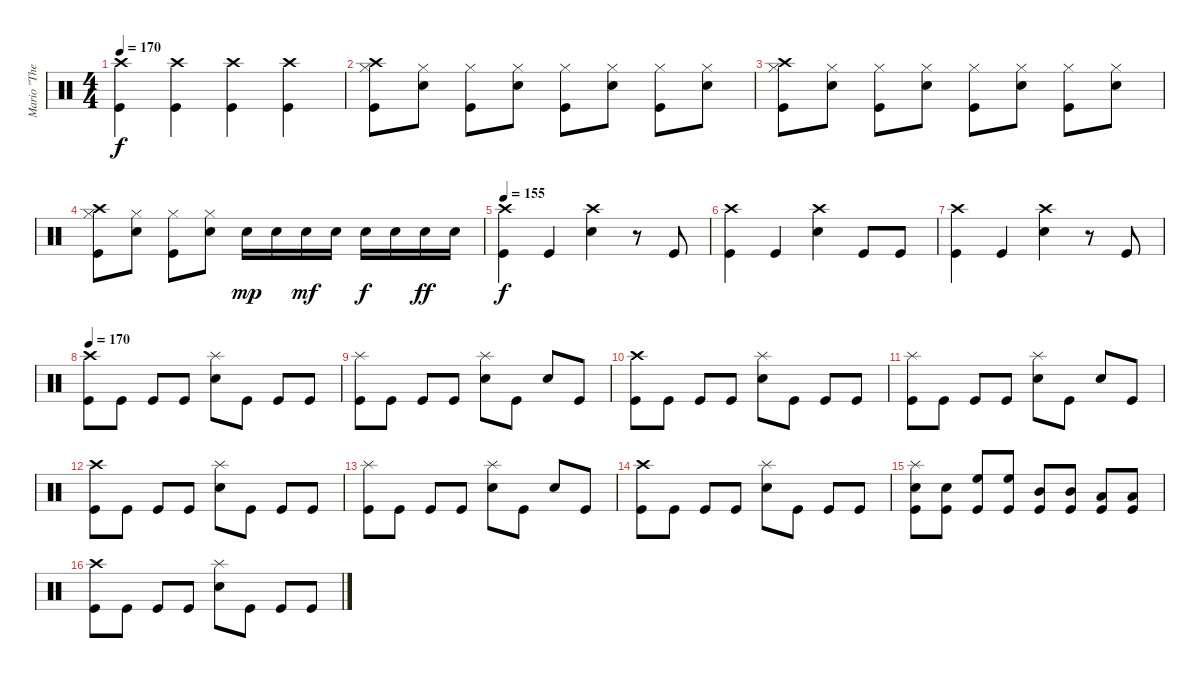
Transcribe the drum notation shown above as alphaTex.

\track ("Mario \"The Dremmel\" Hirt" "Mario \"The") {instrument percussion}
\staff {score}
\articulation defaults
\ts (4 4)
\tempo 170
\clef neutral
\ks c
("Crash high (hit)" "Kick (hit)").4{dy f} ("Crash high (hit)" "Kick (hit)").4 ("Crash high (hit)" "Kick (hit)").4 ("Crash high (hit)" "Kick (hit)").4 |
("Crash high (hit)" "Hi-Hat (closed)" "Kick (hit)").8 ("Hi-Hat (closed)" "Electric Snare (hit)").8 ("Hi-Hat (closed)" "Kick (hit)").8 ("Hi-Hat (closed)" "Electric Snare (hit)").8 ("Hi-Hat (closed)" "Kick (hit)").8 ("Hi-Hat (closed)" "Electric Snare (hit)").8 ("Hi-Hat (closed)" "Kick (hit)").8 ("Hi-Hat (closed)" "Electric Snare (hit)").8 |
("Crash high (hit)" "Hi-Hat (closed)" "Kick (hit)").8 ("Hi-Hat (closed)" "Electric Snare (hit)").8 ("Hi-Hat (closed)" "Kick (hit)").8 ("Hi-Hat (closed)" "Electric Snare (hit)").8 ("Hi-Hat (closed)" "Kick (hit)").8 ("Hi-Hat (closed)" "Electric Snare (hit)").8 ("Hi-Hat (closed)" "Kick (hit)").8 ("Hi-Hat (closed)" "Electric Snare (hit)").8 |
("Crash high (hit)" "Hi-Hat (closed)" "Kick (hit)").8 ("Hi-Hat (closed)" "Electric Snare (hit)").8 ("Hi-Hat (closed)" "Kick (hit)").8 ("Hi-Hat (closed)" "Electric Snare (hit)").8 "Electric Snare (hit)".16{dy mp} "Electric Snare (hit)".16 "Electric Snare (hit)".16{dy mf} "Electric Snare (hit)".16 "Electric Snare (hit)".16{dy f} "Electric Snare (hit)".16 "Electric Snare (hit)".16{dy ff} "Electric Snare (hit)".16 |
\tempo 155
("Crash high (hit)" "Kick (hit)").4{dy f} "Kick (hit)".4 ("Crash high (hit)" "Electric Snare (hit)").4 r.8 "Kick (hit)".8 |
("Crash high (hit)" "Kick (hit)").4 "Kick (hit)".4 ("Crash high (hit)" "Electric Snare (hit)").4 "Kick (hit)".8 "Kick (hit)".8 |
("Crash high (hit)" "Kick (hit)").4 "Kick (hit)".4 ("Crash high (hit)" "Electric Snare (hit)").4 r.8 "Kick (hit)".8 |
\tempo 170
("Crash high (hit)" "Kick (hit)").8 "Kick (hit)".8 "Kick (hit)".8 "Kick (hit)".8 ("Splash (hit)" "Electric Snare (hit)").8 "Kick (hit)".8 "Kick (hit)".8 "Kick (hit)".8 |
("Splash (hit)" "Kick (hit)").8 "Kick (hit)".8 "Kick (hit)".8 "Kick (hit)".8 ("Splash (hit)" "Electric Snare (hit)").8 "Kick (hit)".8 "Electric Snare (hit)".8 "Kick (hit)".8 |
("Crash high (hit)" "Kick (hit)").8 "Kick (hit)".8 "Kick (hit)".8 "Kick (hit)".8 ("Splash (hit)" "Electric Snare (hit)").8 "Kick (hit)".8 "Kick (hit)".8 "Kick (hit)".8 |
("Splash (hit)" "Kick (hit)").8 "Kick (hit)".8 "Kick (hit)".8 "Kick (hit)".8 ("Splash (hit)" "Electric Snare (hit)").8 "Kick (hit)".8 "Electric Snare (hit)".8 "Kick (hit)".8 |
("Crash high (hit)" "Kick (hit)").8 "Kick (hit)".8 "Kick (hit)".8 "Kick (hit)".8 ("Splash (hit)" "Electric Snare (hit)").8 "Kick (hit)".8 "Kick (hit)".8 "Kick (hit)".8 |
("Splash (hit)" "Kick (hit)").8 "Kick (hit)".8 "Kick (hit)".8 "Kick (hit)".8 ("Splash (hit)" "Electric Snare (hit)").8 "Kick (hit)".8 "Electric Snare (hit)".8 "Kick (hit)".8 |
("Crash high (hit)" "Kick (hit)").8 "Kick (hit)".8 "Kick (hit)".8 "Kick (hit)".8 ("Splash (hit)" "Electric Snare (hit)").8 "Kick (hit)".8 "Kick (hit)".8 "Kick (hit)".8 |
("Splash (hit)" "Electric Snare (hit)" "Kick (hit)").8 ("Electric Snare (hit)" "Kick (hit)").8 ("High Floor Tom (hit)" "Kick (hit)").8 ("High Floor Tom (hit)" "Kick (hit)").8 ("Mid Tom (hit)" "Kick (hit)").8 ("Mid Tom (hit)" "Kick (hit)").8 ("Low Tom (hit)" "Kick (hit)").8 ("Low Tom (hit)" "Kick (hit)").8 |
("Crash high (hit)" "Kick (hit)").8 "Kick (hit)".8 "Kick (hit)".8 "Kick (hit)".8 ("Splash (hit)" "Electric Snare (hit)").8 "Kick (hit)".8 "Kick (hit)".8 "Kick (hit)".8
